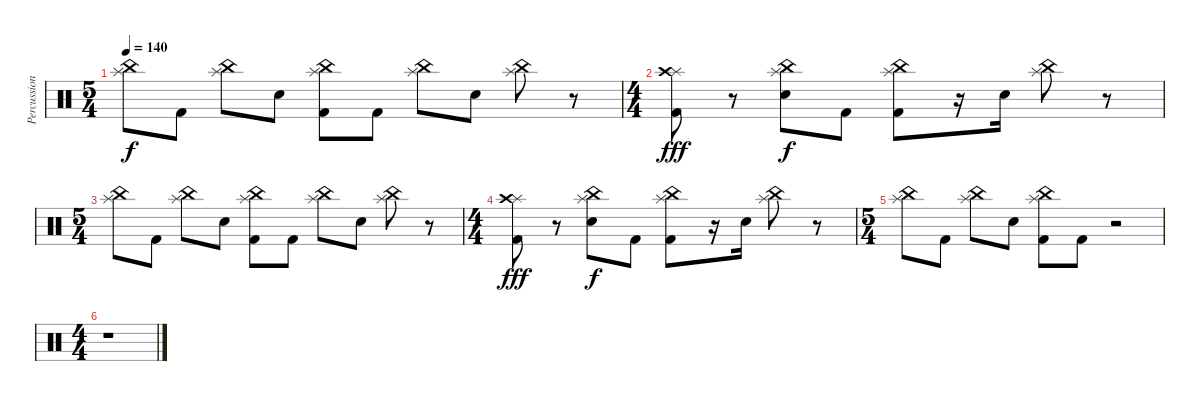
\track ("Percussion" "Percussion") {instrument percussion}
\staff {score}
\articulation defaults
\ts (5 4)
\tempo 140
\clef neutral
\ks c
("Splash (hit)" "China (hit)").8{dy f} "Kick (hit) 2".8 ("Splash (hit)" "China (hit)").8 "Electric Snare (hit)".8 ("Splash (hit)" "China (hit)" "Kick (hit) 2").8 "Kick (hit) 2".8 ("Splash (hit)" "China (hit)").8 "Electric Snare (hit)".8 ("Splash (hit)" "China (hit)").8 r.8 |
\ts (4 4)
("Splash (hit)" "Crash high (hit)" "Kick (hit) 2").8{dy fff} r.8 ("Splash (hit)" "China (hit)" "Electric Snare (hit)").8{dy f} "Kick (hit) 2".8 ("Splash (hit)" "China (hit)" "Kick (hit) 2").8 r.16 "Electric Snare (hit)".16 ("Splash (hit)" "China (hit)").8 r.8 |
\ts (5 4)
("Splash (hit)" "China (hit)").8 "Kick (hit) 2".8 ("Splash (hit)" "China (hit)").8 "Electric Snare (hit)".8 ("Splash (hit)" "China (hit)" "Kick (hit) 2").8 "Kick (hit) 2".8 ("Splash (hit)" "China (hit)").8 "Electric Snare (hit)".8 ("Splash (hit)" "China (hit)").8 r.8 |
\ts (4 4)
("Splash (hit)" "Crash high (hit)" "Kick (hit) 2").8{dy fff} r.8 ("Splash (hit)" "China (hit)" "Electric Snare (hit)").8{dy f} "Kick (hit) 2".8 ("Splash (hit)" "China (hit)" "Kick (hit) 2").8 r.16 "Electric Snare (hit)".16 ("Splash (hit)" "China (hit)").8 r.8 |
\ts (5 4)
("Splash (hit)" "China (hit)").8 "Kick (hit) 2".8 ("Splash (hit)" "China (hit)").8 "Electric Snare (hit)".8 ("Splash (hit)" "China (hit)" "Kick (hit) 2").8 "Kick (hit) 2".8 r.2 |
\ts (4 4)
r.1
